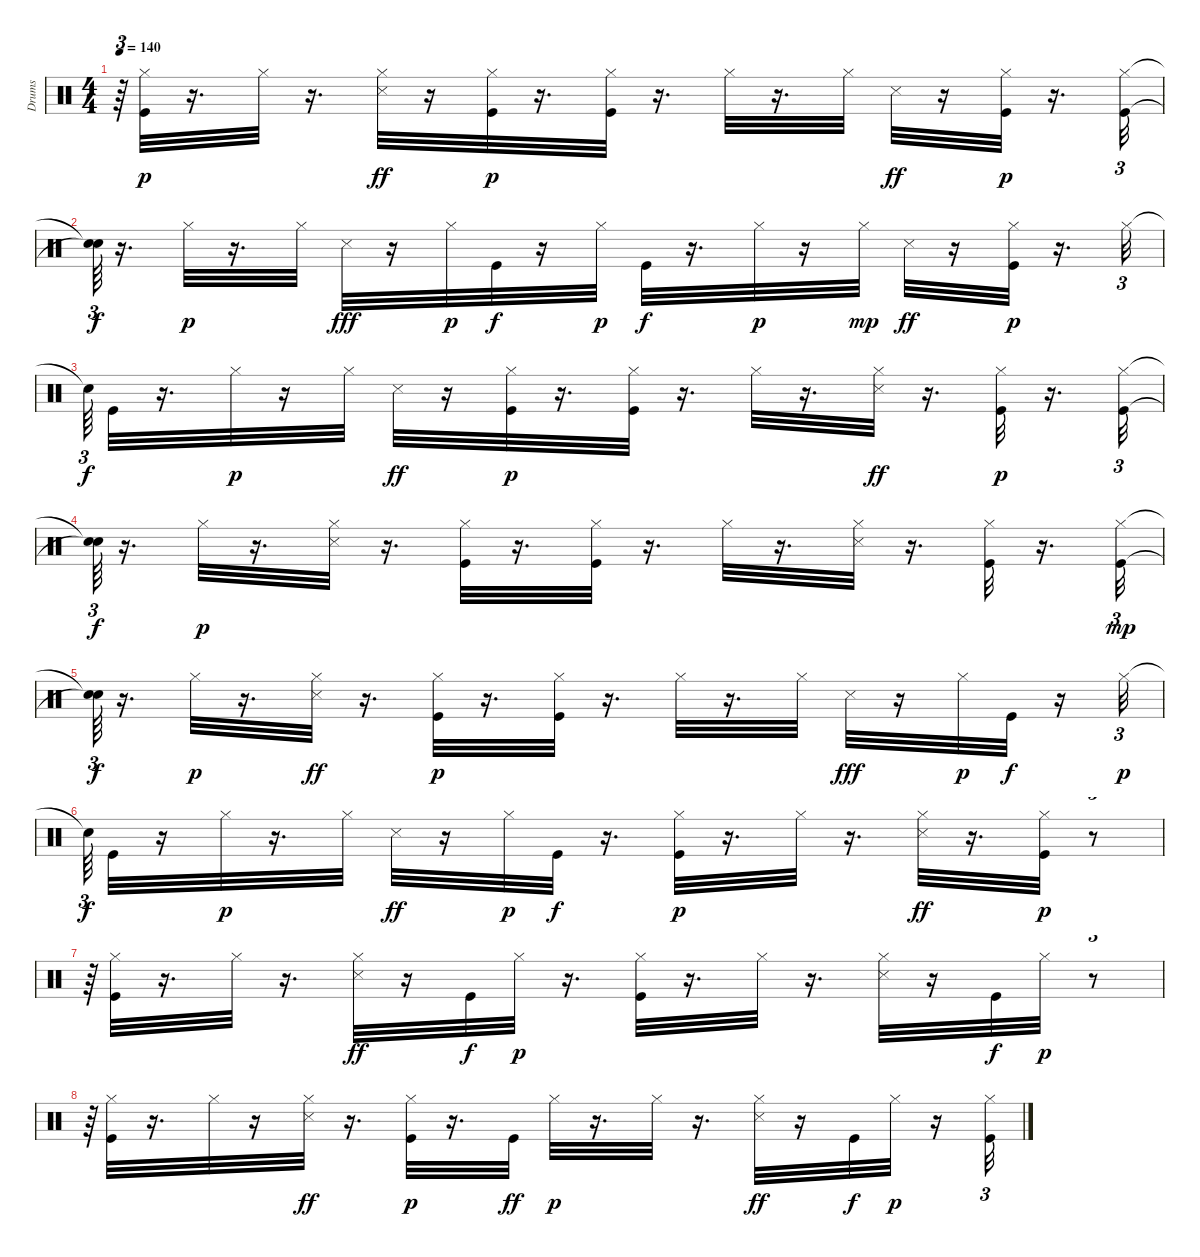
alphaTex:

\track ("Drums" "Drums") {instrument percussion}
\staff {score}
\articulation defaults
\ts (4 4)
\tempo 140
\clef neutral
\ks c
r.64{tu (3 2) dy p} ("Hi-Hat (closed)" "Kick (hit)").32 r.16{d} "Hi-Hat (closed)".32 r.16{d} ("Hi-Hat (closed)" "Snare (side stick) 3").32{dy ff} r.16 ("Kick (hit)" "Hi-Hat (closed)").32{dy p} r.16{d} ("Hi-Hat (closed)" "Kick (hit)").32 r.16{d} "Hi-Hat (closed)".32 r.16{d} "Hi-Hat (closed)".32 "Snare (side stick) 3".32{dy ff} r.16 ("Hi-Hat (closed)" "Kick (hit)").32{dy p} r.16{d} ("Hi-Hat (closed)" "Kick (hit)").32{tu (3 2)} |
("Snare (hit)"{t} "Snare (hit)"{t}).64{tu (3 2) dy f} r.16{d} "Hi-Hat (closed)".32{dy p} r.16{d} "Hi-Hat (closed)".32 "Snare (side stick) 3".32{dy fff} r.16 "Hi-Hat (closed)".32{dy p} "Kick (hit)".32{dy f} r.16 "Hi-Hat (closed)".32{dy p} "Kick (hit)".32{dy f} r.16{d} "Hi-Hat (closed)".32{dy p} r.16 "Hi-Hat (closed)".32{dy mp} "Snare (side stick) 3".32{dy ff} r.16 ("Kick (hit)" "Hi-Hat (closed)").32{dy p} r.16{d} "Hi-Hat (closed)".32{tu (3 2)} |
"Snare (hit)"{t}.64{tu (3 2) dy f} "Kick (hit)".32 r.16{d} "Hi-Hat (closed)".32{dy p} r.16 "Hi-Hat (closed)".32 "Snare (side stick) 3".32{dy ff} r.16 ("Kick (hit)" "Hi-Hat (closed)").32{dy p} r.16{d} ("Hi-Hat (closed)" "Kick (hit)").32 r.16{d} "Hi-Hat (closed)".32 r.16{d} ("Hi-Hat (closed)" "Snare (side stick) 3").32{dy ff} r.16{d} ("Kick (hit)" "Hi-Hat (closed)").32{dy p} r.16{d} ("Hi-Hat (closed)" "Kick (hit)").32{tu (3 2)} |
("Snare (hit)"{t} "Snare (hit)"{t}).64{tu (3 2) dy f} r.16{d} "Hi-Hat (closed)".32{dy p} r.16{d} ("Snare (side stick) 3" "Hi-Hat (closed)").32 r.16{d} ("Hi-Hat (closed)" "Kick (hit)").32 r.16{d} ("Hi-Hat (closed)" "Kick (hit)").32 r.16{d} "Hi-Hat (closed)".32 r.16{d} ("Snare (side stick) 3" "Hi-Hat (closed)").32 r.16{d} ("Kick (hit)" "Hi-Hat (closed)").32 r.16{d} ("Hi-Hat (closed)" "Kick (hit)").32{tu (3 2) dy mp} |
("Snare (hit)"{t} "Snare (hit)"{t}).64{tu (3 2) dy f} r.16{d} "Hi-Hat (closed)".32{dy p} r.16{d} ("Hi-Hat (closed)" "Snare (side stick) 3").32{dy ff} r.16{d} ("Kick (hit)" "Hi-Hat (closed)").32{dy p} r.16{d} ("Hi-Hat (closed)" "Kick (hit)").32 r.16{d} "Hi-Hat (closed)".32 r.16{d} "Hi-Hat (closed)".32 "Snare (side stick) 3".32{dy fff} r.16 "Hi-Hat (closed)".32{dy p} "Kick (hit)".32{dy f} r.16 "Hi-Hat (closed)".32{tu (3 2) dy p} |
"Snare (hit)"{t}.64{tu (3 2) dy f} "Kick (hit)".32 r.16 "Hi-Hat (closed)".32{dy p} r.16{d} "Hi-Hat (closed)".32 "Snare (side stick) 3".32{dy ff} r.16 "Hi-Hat (closed)".32{dy p} "Kick (hit)".32{dy f} r.16{d} ("Hi-Hat (closed)" "Kick (hit)").32{dy p} r.16{d} "Hi-Hat (closed)".32 r.16{d} ("Hi-Hat (closed)" "Snare (side stick) 3").32{dy ff} r.16{d} ("Hi-Hat (closed)" "Kick (hit)").32{dy p} r.8{tu (3 2)} |
r.64{tu (3 2)} ("Hi-Hat (closed)" "Kick (hit)").32 r.16{d} "Hi-Hat (closed)".32 r.16{d} ("Hi-Hat (closed)" "Snare (side stick) 3").32{dy ff} r.16 "Kick (hit)".32{dy f} "Hi-Hat (closed)".32{dy p} r.16{d} ("Kick (hit)" "Hi-Hat (closed)").32 r.16{d} "Hi-Hat (closed)".32 r.16{d} ("Snare (side stick) 3" "Hi-Hat (closed)").32 r.16 "Kick (hit)".32{dy f} "Hi-Hat (closed)".32{dy p} r.8{tu (3 2)} |
r.64{tu (3 2)} ("Hi-Hat (closed)" "Kick (hit)").32 r.16{d} "Hi-Hat (closed)".32 r.16 ("Hi-Hat (closed)" "Snare (side stick) 3").32{dy ff} r.16{d} ("Kick (hit)" "Hi-Hat (closed)").32{dy p} r.16{d} "Kick (hit)".32{dy ff} "Hi-Hat (closed)".32{dy p} r.16{d} "Hi-Hat (closed)".32 r.16{d} ("Hi-Hat (closed)" "Snare (side stick) 3").32{dy ff} r.16 "Kick (hit)".32{dy f} "Hi-Hat (closed)".32{dy p} r.16 ("Kick (hit)" "Hi-Hat (closed)").32{tu (3 2)}
